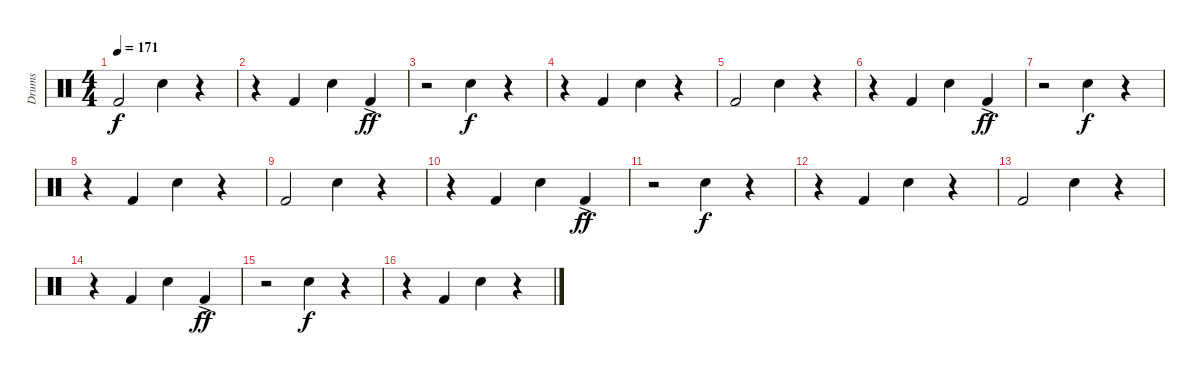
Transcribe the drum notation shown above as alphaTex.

\track ("Drums" "Drums") {instrument percussion}
\staff {score}
\articulation defaults
\ts (4 4)
\tempo 171
\clef neutral
\ks c "Kick (hit) 2".2{dy f} "Snare (hit) 2".4
r.4 |
r.4 "Kick (hit) 2".4 "Snare (hit) 2".4 "Kick (hit) 2"{ac}.4{dy ff} |
r.2 "Snare (hit) 2".4{dy f} r.4 |
r.4 "Kick (hit) 2".4 "Snare (hit) 2".4 r.4 |
"Kick (hit) 2".2 "Snare (hit) 2".4 r.4 |
r.4 "Kick (hit) 2".4 "Snare (hit) 2".4 "Kick (hit) 2"{ac}.4{dy ff} |
r.2 "Snare (hit) 2".4{dy f} r.4 |
r.4 "Kick (hit) 2".4 "Snare (hit) 2".4 r.4 |
"Kick (hit) 2".2 "Snare (hit) 2".4 r.4 |
r.4 "Kick (hit) 2".4 "Snare (hit) 2".4 "Kick (hit) 2"{ac}.4{dy ff} |
r.2 "Snare (hit) 2".4{dy f} r.4 |
r.4 "Kick (hit) 2".4 "Snare (hit) 2".4 r.4 |
"Kick (hit) 2".2 "Snare (hit) 2".4 r.4 |
r.4 "Kick (hit) 2".4 "Snare (hit) 2".4 "Kick (hit) 2"{ac}.4{dy ff} |
r.2 "Snare (hit) 2".4{dy f} r.4 |
r.4 "Kick (hit) 2".4 "Snare (hit) 2".4 r.4
